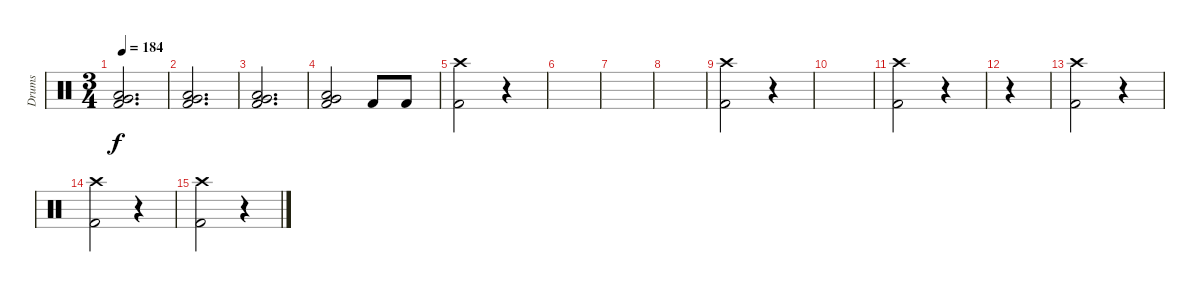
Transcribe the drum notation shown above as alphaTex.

\track ("Drums" "Drums") {instrument percussion}
\staff {score}
\articulation defaults
\ts (3 4)
\tempo 184
\clef neutral
\ks c
("Low Floor Tom (hit)" "Very Low Tom (hit)" "Kick (hit) 2").2{d dy f} |
("Low Floor Tom (hit)" "Very Low Tom (hit)" "Kick (hit) 2").2{d} |
("Low Floor Tom (hit)" "Very Low Tom (hit)" "Kick (hit) 2").2{d} |
("Low Floor Tom (hit)" "Very Low Tom (hit)" "Kick (hit) 2").2 "Kick (hit) 2".8 "Kick (hit) 2".8 |
("Crash high (hit)" "Kick (hit) 2").2 r.4 |
|
|
|
("Crash high (hit)" "Kick (hit) 2").2 r.4 |
|
("Crash high (hit)" "Kick (hit) 2").2 r.4 |
r.4 |
("Crash high (hit)" "Kick (hit) 2").2 r.4 |
("Crash high (hit)" "Kick (hit) 2").2 r.4 |
("Crash high (hit)" "Kick (hit) 2").2 r.4
